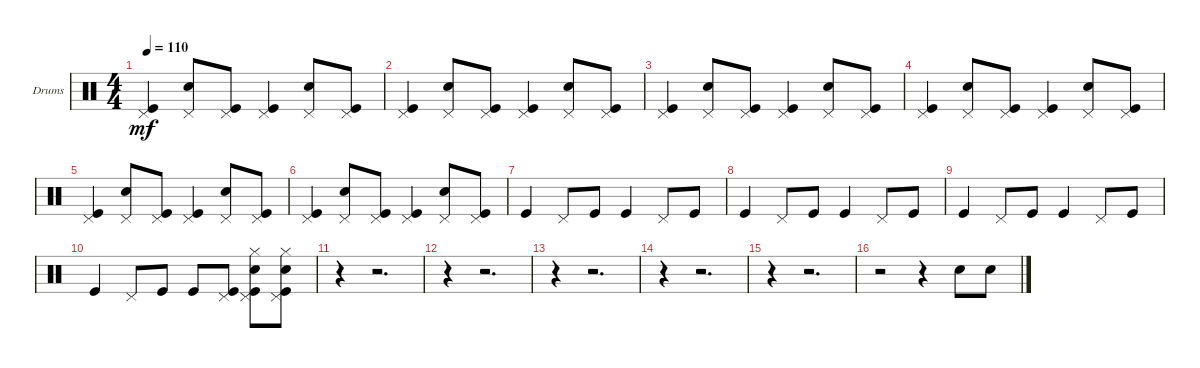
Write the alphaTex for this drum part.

\bracketExtendMode groupsimilarinstruments
\firstSystemTrackNameOrientation horizontal
\otherSystemsTrackNameOrientation horizontal
\track ("Drumkit" "Drums") {instrument percussion}
\staff {score}
\articulation defaults
\ts (4 4)
\tempo 110
\clef neutral
\ks c
("Kick (hit)" "Pedal Hi-Hat (hit)").4{dy mf} ("Snare (hit) 2" "Pedal Hi-Hat (hit)").8 ("Kick (hit)" "Pedal Hi-Hat (hit)").8 ("Kick (hit)" "Pedal Hi-Hat (hit)").4 ("Snare (hit) 2" "Pedal Hi-Hat (hit)").8 ("Kick (hit)" "Pedal Hi-Hat (hit)").8 |
("Kick (hit)" "Pedal Hi-Hat (hit)").4 ("Snare (hit) 2" "Pedal Hi-Hat (hit)").8 ("Kick (hit)" "Pedal Hi-Hat (hit)").8 ("Kick (hit)" "Pedal Hi-Hat (hit)").4 ("Snare (hit) 2" "Pedal Hi-Hat (hit)").8 ("Kick (hit)" "Pedal Hi-Hat (hit)").8 |
("Kick (hit)" "Pedal Hi-Hat (hit)").4 ("Snare (hit) 2" "Pedal Hi-Hat (hit)").8 ("Kick (hit)" "Pedal Hi-Hat (hit)").8 ("Kick (hit)" "Pedal Hi-Hat (hit)").4 ("Snare (hit) 2" "Pedal Hi-Hat (hit)").8 ("Kick (hit)" "Pedal Hi-Hat (hit)").8 |
("Kick (hit)" "Pedal Hi-Hat (hit)").4 ("Snare (hit) 2" "Pedal Hi-Hat (hit)").8 ("Kick (hit)" "Pedal Hi-Hat (hit)").8 ("Kick (hit)" "Pedal Hi-Hat (hit)").4 ("Snare (hit) 2" "Pedal Hi-Hat (hit)").8 ("Kick (hit)" "Pedal Hi-Hat (hit)").8 |
("Kick (hit)" "Pedal Hi-Hat (hit)").4 ("Snare (hit) 2" "Pedal Hi-Hat (hit)").8 ("Kick (hit)" "Pedal Hi-Hat (hit)").8 ("Kick (hit)" "Pedal Hi-Hat (hit)").4 ("Snare (hit) 2" "Pedal Hi-Hat (hit)").8 ("Kick (hit)" "Pedal Hi-Hat (hit)").8 |
("Kick (hit)" "Pedal Hi-Hat (hit)").4 ("Snare (hit) 2" "Pedal Hi-Hat (hit)").8 ("Kick (hit)" "Pedal Hi-Hat (hit)").8 ("Kick (hit)" "Pedal Hi-Hat (hit)").4 ("Snare (hit) 2" "Pedal Hi-Hat (hit)").8 ("Kick (hit)" "Pedal Hi-Hat (hit)").8 |
"Kick (hit)".4 "Pedal Hi-Hat (hit)".8 "Kick (hit)".8 "Kick (hit)".4 "Pedal Hi-Hat (hit)".8 "Kick (hit)".8 |
"Kick (hit)".4 "Pedal Hi-Hat (hit)".8 "Kick (hit)".8 "Kick (hit)".4 "Pedal Hi-Hat (hit)".8 "Kick (hit)".8 |
"Kick (hit)".4 "Pedal Hi-Hat (hit)".8 "Kick (hit)".8 "Kick (hit)".4 "Pedal Hi-Hat (hit)".8 "Kick (hit)".8 |
"Kick (hit)".4 "Pedal Hi-Hat (hit)".8 "Kick (hit)".8 "Kick (hit)".8 ("Pedal Hi-Hat (hit)" "Kick (hit)").8 ("Kick (hit)" "Snare (hit) 2" "Pedal Hi-Hat (hit)" "Hi-Hat (closed)").8 ("Kick (hit)" "Snare (hit) 2" "Pedal Hi-Hat (hit)" "Hi-Hat (closed)").8 |
r.4 r.2{d} |
r.4 r.2{d} |
r.4 r.2{d} |
r.4 r.2{d} |
r.4 r.2{d} |
r.2 r.4 "Snare (hit) 2".8 "Snare (hit) 2".8
